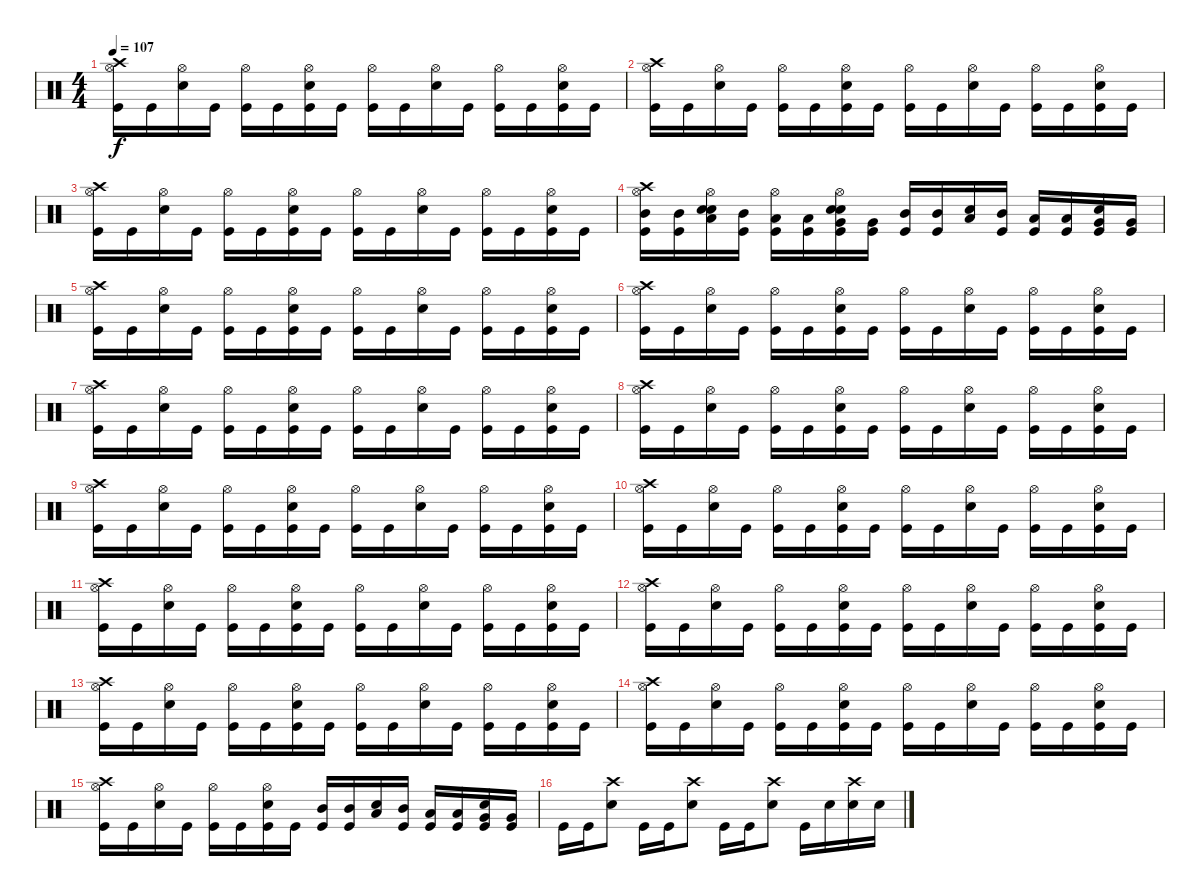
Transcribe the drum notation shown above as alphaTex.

\track "" {instrument percussion}
\staff {score}
\articulation defaults
\ts (4 4)
\tempo 107
\clef neutral
\ks c
("Hi-Hat (open)" "Crash high (hit)" "Kick (hit)").16{dy f} "Kick (hit)".16 ("Hi-Hat (open)" "Snare (hit) 2").16 "Kick (hit)".16 ("Hi-Hat (open)" "Kick (hit)").16 "Kick (hit)".16 ("Hi-Hat (open)" "Snare (hit) 2" "Kick (hit)").16 "Kick (hit)".16 ("Hi-Hat (open)" "Kick (hit)").16 "Kick (hit)".16 ("Hi-Hat (open)" "Snare (hit) 2").16 "Kick (hit)".16 ("Hi-Hat (open)" "Kick (hit)").16 "Kick (hit)".16 ("Hi-Hat (open)" "Snare (hit) 2" "Kick (hit)").16 "Kick (hit)".16 |
("Hi-Hat (open)" "Crash high (hit)" "Kick (hit)").16 "Kick (hit)".16 ("Hi-Hat (open)" "Snare (hit) 2").16 "Kick (hit)".16 ("Hi-Hat (open)" "Kick (hit)").16 "Kick (hit)".16 ("Hi-Hat (open)" "Snare (hit) 2" "Kick (hit)").16 "Kick (hit)".16 ("Hi-Hat (open)" "Kick (hit)").16 "Kick (hit)".16 ("Hi-Hat (open)" "Snare (hit) 2").16 "Kick (hit)".16 ("Hi-Hat (open)" "Kick (hit)").16 "Kick (hit)".16 ("Hi-Hat (open)" "Snare (hit) 2" "Kick (hit)").16 "Kick (hit)".16 |
("Hi-Hat (open)" "Crash high (hit)" "Kick (hit)").16 "Kick (hit)".16 ("Hi-Hat (open)" "Snare (hit) 2").16 "Kick (hit)".16 ("Hi-Hat (open)" "Kick (hit)").16 "Kick (hit)".16 ("Hi-Hat (open)" "Snare (hit) 2" "Kick (hit)").16 "Kick (hit)".16 ("Hi-Hat (open)" "Kick (hit)").16 "Kick (hit)".16 ("Hi-Hat (open)" "Snare (hit) 2").16 "Kick (hit)".16 ("Hi-Hat (open)" "Kick (hit)").16 "Kick (hit)".16 ("Hi-Hat (open)" "Snare (hit) 2" "Kick (hit)").16 "Kick (hit)".16 |
("Mid Tom (hit)" "Hi-Hat (open)" "Crash high (hit)" "Kick (hit)").16 ("Mid Tom (hit)" "Kick (hit)").16 ("Low Tom (hit)" "Snare (hit) 2" "Hi-Hat (open)" "Snare (hit) 2").16 ("Mid Tom (hit)" "Kick (hit)").16 ("Low Tom (hit)" "Hi-Hat (open)" "Kick (hit)").16 ("Low Tom (hit)" "Kick (hit)").16 ("Very Low Tom (hit)" "Snare (hit) 2" "Hi-Hat (open)" "Snare (hit) 2" "Kick (hit)").16 ("Very Low Tom (hit)" "Kick (hit)").16 ("Mid Tom (hit)" "Kick (hit)").16 ("Mid Tom (hit)" "Kick (hit)").16 ("Low Tom (hit)" "Snare (hit) 2").16 ("Mid Tom (hit)" "Kick (hit)").16 ("Low Tom (hit)" "Kick (hit)").16 ("Low Tom (hit)" "Kick (hit)").16 ("Very Low Tom (hit)" "Snare (hit) 2" "Kick (hit)").16 ("Very Low Tom (hit)" "Kick (hit)").16 |
("Hi-Hat (open)" "Crash high (hit)" "Kick (hit)").16 "Kick (hit)".16 ("Hi-Hat (open)" "Snare (hit) 2").16 "Kick (hit)".16 ("Hi-Hat (open)" "Kick (hit)").16 "Kick (hit)".16 ("Hi-Hat (open)" "Snare (hit) 2" "Kick (hit)").16 "Kick (hit)".16 ("Hi-Hat (open)" "Kick (hit)").16 "Kick (hit)".16 ("Hi-Hat (open)" "Snare (hit) 2").16 "Kick (hit)".16 ("Hi-Hat (open)" "Kick (hit)").16 "Kick (hit)".16 ("Hi-Hat (open)" "Snare (hit) 2" "Kick (hit)").16 "Kick (hit)".16 |
("Hi-Hat (open)" "Crash high (hit)" "Kick (hit)").16 "Kick (hit)".16 ("Hi-Hat (open)" "Snare (hit) 2").16 "Kick (hit)".16 ("Hi-Hat (open)" "Kick (hit)").16 "Kick (hit)".16 ("Hi-Hat (open)" "Snare (hit) 2" "Kick (hit)").16 "Kick (hit)".16 ("Hi-Hat (open)" "Kick (hit)").16 "Kick (hit)".16 ("Hi-Hat (open)" "Snare (hit) 2").16 "Kick (hit)".16 ("Hi-Hat (open)" "Kick (hit)").16 "Kick (hit)".16 ("Hi-Hat (open)" "Snare (hit) 2" "Kick (hit)").16 "Kick (hit)".16 |
("Hi-Hat (open)" "Crash high (hit)" "Kick (hit)").16 "Kick (hit)".16 ("Hi-Hat (open)" "Snare (hit) 2").16 "Kick (hit)".16 ("Hi-Hat (open)" "Kick (hit)").16 "Kick (hit)".16 ("Hi-Hat (open)" "Snare (hit) 2" "Kick (hit)").16 "Kick (hit)".16 ("Hi-Hat (open)" "Kick (hit)").16 "Kick (hit)".16 ("Hi-Hat (open)" "Snare (hit) 2").16 "Kick (hit)".16 ("Hi-Hat (open)" "Kick (hit)").16 "Kick (hit)".16 ("Hi-Hat (open)" "Snare (hit) 2" "Kick (hit)").16 "Kick (hit)".16 |
("Hi-Hat (open)" "Crash high (hit)" "Kick (hit)").16 "Kick (hit)".16 ("Hi-Hat (open)" "Snare (hit) 2").16 "Kick (hit)".16 ("Hi-Hat (open)" "Kick (hit)").16 "Kick (hit)".16 ("Hi-Hat (open)" "Snare (hit) 2" "Kick (hit)").16 "Kick (hit)".16 ("Hi-Hat (open)" "Kick (hit)").16 "Kick (hit)".16 ("Hi-Hat (open)" "Snare (hit) 2").16 "Kick (hit)".16 ("Hi-Hat (open)" "Kick (hit)").16 "Kick (hit)".16 ("Hi-Hat (open)" "Snare (hit) 2" "Kick (hit)").16 "Kick (hit)".16 |
("Hi-Hat (open)" "Crash high (hit)" "Kick (hit)").16 "Kick (hit)".16 ("Hi-Hat (open)" "Snare (hit) 2").16 "Kick (hit)".16 ("Hi-Hat (open)" "Kick (hit)").16 "Kick (hit)".16 ("Hi-Hat (open)" "Snare (hit) 2" "Kick (hit)").16 "Kick (hit)".16 ("Hi-Hat (open)" "Kick (hit)").16 "Kick (hit)".16 ("Hi-Hat (open)" "Snare (hit) 2").16 "Kick (hit)".16 ("Hi-Hat (open)" "Kick (hit)").16 "Kick (hit)".16 ("Hi-Hat (open)" "Snare (hit) 2" "Kick (hit)").16 "Kick (hit)".16 |
("Hi-Hat (open)" "Crash high (hit)" "Kick (hit)").16 "Kick (hit)".16 ("Hi-Hat (open)" "Snare (hit) 2").16 "Kick (hit)".16 ("Hi-Hat (open)" "Kick (hit)").16 "Kick (hit)".16 ("Hi-Hat (open)" "Snare (hit) 2" "Kick (hit)").16 "Kick (hit)".16 ("Hi-Hat (open)" "Kick (hit)").16 "Kick (hit)".16 ("Hi-Hat (open)" "Snare (hit) 2").16 "Kick (hit)".16 ("Hi-Hat (open)" "Kick (hit)").16 "Kick (hit)".16 ("Hi-Hat (open)" "Snare (hit) 2" "Kick (hit)").16 "Kick (hit)".16 |
("Hi-Hat (open)" "Crash high (hit)" "Kick (hit)").16 "Kick (hit)".16 ("Hi-Hat (open)" "Snare (hit) 2").16 "Kick (hit)".16 ("Hi-Hat (open)" "Kick (hit)").16 "Kick (hit)".16 ("Hi-Hat (open)" "Snare (hit) 2" "Kick (hit)").16 "Kick (hit)".16 ("Hi-Hat (open)" "Kick (hit)").16 "Kick (hit)".16 ("Hi-Hat (open)" "Snare (hit) 2").16 "Kick (hit)".16 ("Hi-Hat (open)" "Kick (hit)").16 "Kick (hit)".16 ("Hi-Hat (open)" "Snare (hit) 2" "Kick (hit)").16 "Kick (hit)".16 |
("Hi-Hat (open)" "Crash high (hit)" "Kick (hit)").16 "Kick (hit)".16 ("Hi-Hat (open)" "Snare (hit) 2").16 "Kick (hit)".16 ("Hi-Hat (open)" "Kick (hit)").16 "Kick (hit)".16 ("Hi-Hat (open)" "Snare (hit) 2" "Kick (hit)").16 "Kick (hit)".16 ("Hi-Hat (open)" "Kick (hit)").16 "Kick (hit)".16 ("Hi-Hat (open)" "Snare (hit) 2").16 "Kick (hit)".16 ("Hi-Hat (open)" "Kick (hit)").16 "Kick (hit)".16 ("Hi-Hat (open)" "Snare (hit) 2" "Kick (hit)").16 "Kick (hit)".16 |
("Hi-Hat (open)" "Crash high (hit)" "Kick (hit)").16 "Kick (hit)".16 ("Hi-Hat (open)" "Snare (hit) 2").16 "Kick (hit)".16 ("Hi-Hat (open)" "Kick (hit)").16 "Kick (hit)".16 ("Hi-Hat (open)" "Snare (hit) 2" "Kick (hit)").16 "Kick (hit)".16 ("Hi-Hat (open)" "Kick (hit)").16 "Kick (hit)".16 ("Hi-Hat (open)" "Snare (hit) 2").16 "Kick (hit)".16 ("Hi-Hat (open)" "Kick (hit)").16 "Kick (hit)".16 ("Hi-Hat (open)" "Snare (hit) 2" "Kick (hit)").16 "Kick (hit)".16 |
("Hi-Hat (open)" "Crash high (hit)" "Kick (hit)").16 "Kick (hit)".16 ("Hi-Hat (open)" "Snare (hit) 2").16 "Kick (hit)".16 ("Hi-Hat (open)" "Kick (hit)").16 "Kick (hit)".16 ("Hi-Hat (open)" "Snare (hit) 2" "Kick (hit)").16 "Kick (hit)".16 ("Hi-Hat (open)" "Kick (hit)").16 "Kick (hit)".16 ("Hi-Hat (open)" "Snare (hit) 2").16 "Kick (hit)".16 ("Hi-Hat (open)" "Kick (hit)").16 "Kick (hit)".16 ("Hi-Hat (open)" "Snare (hit) 2" "Kick (hit)").16 "Kick (hit)".16 |
("Hi-Hat (open)" "Crash high (hit)" "Kick (hit)").16 "Kick (hit)".16 ("Hi-Hat (open)" "Snare (hit) 2").16 "Kick (hit)".16 ("Hi-Hat (open)" "Kick (hit)").16 "Kick (hit)".16 ("Hi-Hat (open)" "Snare (hit) 2" "Kick (hit)").16 "Kick (hit)".16 ("Mid Tom (hit)" "Kick (hit)").16 ("Mid Tom (hit)" "Kick (hit)").16 ("Low Tom (hit)" "Snare (hit) 2").16 ("Mid Tom (hit)" "Kick (hit)").16 ("Low Tom (hit)" "Kick (hit)").16 ("Low Tom (hit)" "Kick (hit)").16 ("Very Low Tom (hit)" "Snare (hit) 2" "Kick (hit)").16 ("Very Low Tom (hit)" "Kick (hit)").16 |
"Kick (hit)".16 "Kick (hit)".16 ("Crash high (hit)" "Snare (hit) 2").8 "Kick (hit)".16 "Kick (hit)".16 ("Crash high (hit)" "Snare (hit) 2").8 "Kick (hit)".16 "Kick (hit)".16 ("Crash high (hit)" "Snare (hit) 2").8 "Kick (hit)".16 "Snare (hit) 2".16 ("Crash high (hit)" "Snare (hit) 2").16 "Snare (hit) 2".16
